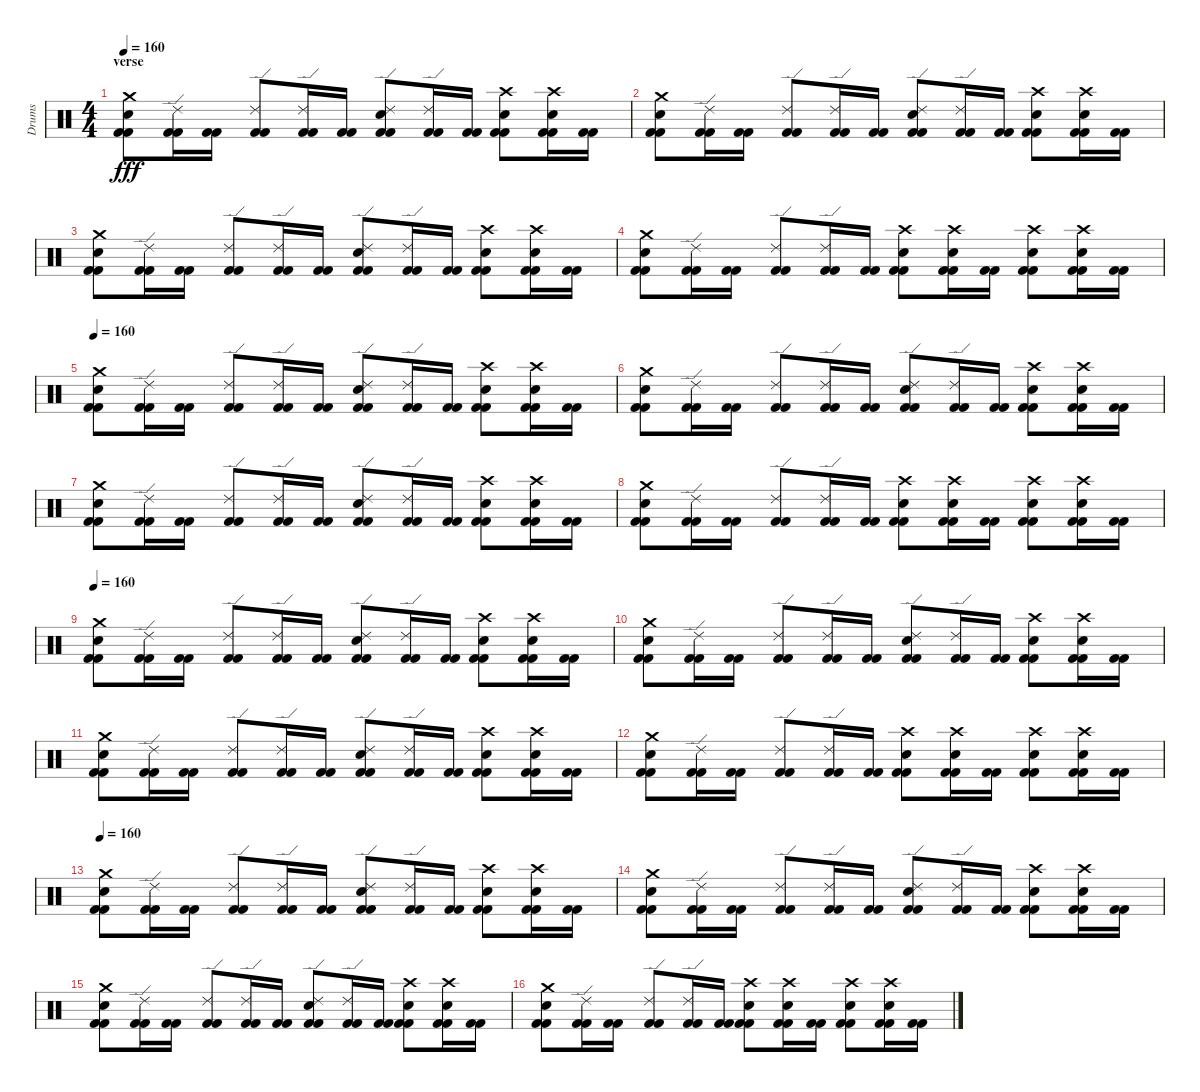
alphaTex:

\track ("Drums" "Drums") {instrument percussion}
\staff {score}
\articulation defaults
\ts (4 4)
\section ("" "verse")
\tempo 160
\clef neutral
\ks c
("Crash medium (hit)" "Electric Snare (hit)" "Kick (hit) 2" "Kick (hit) 2").8{dy fff} ("Ride (edge) 2" "Kick (hit) 2" "Kick (hit) 2").16 ("Kick (hit) 2" "Kick (hit) 2").16 ("Ride (edge) 2" "Kick (hit) 2" "Kick (hit) 2").8 ("Ride (edge) 2" "Kick (hit) 2" "Kick (hit) 2").16 ("Kick (hit) 2" "Kick (hit) 2").16 ("Ride (edge) 2" "Electric Snare (hit)" "Kick (hit) 2" "Kick (hit) 2").8 ("Ride (edge) 2" "Kick (hit) 2" "Kick (hit) 2").16 ("Kick (hit) 2" "Kick (hit) 2").16 ("Crash high (hit)" "Electric Snare (hit)" "Kick (hit) 2" "Kick (hit) 2").8 ("Crash high (hit)" "Electric Snare (hit)" "Kick (hit) 2" "Kick (hit) 2").16 ("Kick (hit) 2" "Kick (hit) 2").16 |
("Crash medium (hit)" "Electric Snare (hit)" "Kick (hit) 2" "Kick (hit) 2").8 ("Ride (edge) 2" "Kick (hit) 2" "Kick (hit) 2").16 ("Kick (hit) 2" "Kick (hit) 2").16 ("Ride (edge) 2" "Kick (hit) 2" "Kick (hit) 2").8 ("Ride (edge) 2" "Kick (hit) 2" "Kick (hit) 2").16 ("Kick (hit) 2" "Kick (hit) 2").16 ("Ride (edge) 2" "Electric Snare (hit)" "Kick (hit) 2" "Kick (hit) 2").8 ("Ride (edge) 2" "Kick (hit) 2" "Kick (hit) 2").16 ("Kick (hit) 2" "Kick (hit) 2").16 ("Crash high (hit)" "Electric Snare (hit)" "Kick (hit) 2" "Kick (hit) 2").8 ("Crash high (hit)" "Electric Snare (hit)" "Kick (hit) 2" "Kick (hit) 2").16 ("Kick (hit) 2" "Kick (hit) 2").16 |
("Crash medium (hit)" "Electric Snare (hit)" "Kick (hit) 2" "Kick (hit) 2").8 ("Ride (edge) 2" "Kick (hit) 2" "Kick (hit) 2").16 ("Kick (hit) 2" "Kick (hit) 2").16 ("Ride (edge) 2" "Kick (hit) 2" "Kick (hit) 2").8 ("Ride (edge) 2" "Kick (hit) 2" "Kick (hit) 2").16 ("Kick (hit) 2" "Kick (hit) 2").16 ("Ride (edge) 2" "Electric Snare (hit)" "Kick (hit) 2" "Kick (hit) 2").8 ("Ride (edge) 2" "Kick (hit) 2" "Kick (hit) 2").16 ("Kick (hit) 2" "Kick (hit) 2").16 ("Crash high (hit)" "Electric Snare (hit)" "Kick (hit) 2" "Kick (hit) 2").8 ("Crash high (hit)" "Electric Snare (hit)" "Kick (hit) 2" "Kick (hit) 2").16 ("Kick (hit) 2" "Kick (hit) 2").16 |
("Crash medium (hit)" "Electric Snare (hit)" "Kick (hit) 2" "Kick (hit) 2").8 ("Ride (edge) 2" "Kick (hit) 2" "Kick (hit) 2").16 ("Kick (hit) 2" "Kick (hit) 2").16 ("Ride (edge) 2" "Kick (hit) 2" "Kick (hit) 2").8 ("Ride (edge) 2" "Kick (hit) 2" "Kick (hit) 2").16 ("Kick (hit) 2" "Kick (hit) 2").16 ("Crash high (hit)" "Electric Snare (hit)" "Kick (hit) 2" "Kick (hit) 2").8 ("Crash high (hit)" "Electric Snare (hit)" "Kick (hit) 2" "Kick (hit) 2").16 ("Kick (hit) 2" "Kick (hit) 2").16 ("Crash high (hit)" "Electric Snare (hit)" "Kick (hit) 2" "Kick (hit) 2").8 ("Crash high (hit)" "Electric Snare (hit)" "Kick (hit) 2" "Kick (hit) 2").16 ("Kick (hit) 2" "Kick (hit) 2").16 |
\tempo 160
("Crash medium (hit)" "Electric Snare (hit)" "Kick (hit) 2" "Kick (hit) 2").8 ("Ride (edge) 2" "Kick (hit) 2" "Kick (hit) 2").16 ("Kick (hit) 2" "Kick (hit) 2").16 ("Ride (edge) 2" "Kick (hit) 2" "Kick (hit) 2").8 ("Ride (edge) 2" "Kick (hit) 2" "Kick (hit) 2").16 ("Kick (hit) 2" "Kick (hit) 2").16 ("Ride (edge) 2" "Electric Snare (hit)" "Kick (hit) 2" "Kick (hit) 2").8 ("Ride (edge) 2" "Kick (hit) 2" "Kick (hit) 2").16 ("Kick (hit) 2" "Kick (hit) 2").16 ("Crash high (hit)" "Electric Snare (hit)" "Kick (hit) 2" "Kick (hit) 2").8 ("Crash high (hit)" "Electric Snare (hit)" "Kick (hit) 2" "Kick (hit) 2").16 ("Kick (hit) 2" "Kick (hit) 2").16 |
("Crash medium (hit)" "Electric Snare (hit)" "Kick (hit) 2" "Kick (hit) 2").8 ("Ride (edge) 2" "Kick (hit) 2" "Kick (hit) 2").16 ("Kick (hit) 2" "Kick (hit) 2").16 ("Ride (edge) 2" "Kick (hit) 2" "Kick (hit) 2").8 ("Ride (edge) 2" "Kick (hit) 2" "Kick (hit) 2").16 ("Kick (hit) 2" "Kick (hit) 2").16 ("Ride (edge) 2" "Electric Snare (hit)" "Kick (hit) 2" "Kick (hit) 2").8 ("Ride (edge) 2" "Kick (hit) 2" "Kick (hit) 2").16 ("Kick (hit) 2" "Kick (hit) 2").16 ("Crash high (hit)" "Electric Snare (hit)" "Kick (hit) 2" "Kick (hit) 2").8 ("Crash high (hit)" "Electric Snare (hit)" "Kick (hit) 2" "Kick (hit) 2").16 ("Kick (hit) 2" "Kick (hit) 2").16 |
("Crash medium (hit)" "Electric Snare (hit)" "Kick (hit) 2" "Kick (hit) 2").8 ("Ride (edge) 2" "Kick (hit) 2" "Kick (hit) 2").16 ("Kick (hit) 2" "Kick (hit) 2").16 ("Ride (edge) 2" "Kick (hit) 2" "Kick (hit) 2").8 ("Ride (edge) 2" "Kick (hit) 2" "Kick (hit) 2").16 ("Kick (hit) 2" "Kick (hit) 2").16 ("Ride (edge) 2" "Electric Snare (hit)" "Kick (hit) 2" "Kick (hit) 2").8 ("Ride (edge) 2" "Kick (hit) 2" "Kick (hit) 2").16 ("Kick (hit) 2" "Kick (hit) 2").16 ("Crash high (hit)" "Electric Snare (hit)" "Kick (hit) 2" "Kick (hit) 2").8 ("Crash high (hit)" "Electric Snare (hit)" "Kick (hit) 2" "Kick (hit) 2").16 ("Kick (hit) 2" "Kick (hit) 2").16 |
("Crash medium (hit)" "Electric Snare (hit)" "Kick (hit) 2" "Kick (hit) 2").8 ("Ride (edge) 2" "Kick (hit) 2" "Kick (hit) 2").16 ("Kick (hit) 2" "Kick (hit) 2").16 ("Ride (edge) 2" "Kick (hit) 2" "Kick (hit) 2").8 ("Ride (edge) 2" "Kick (hit) 2" "Kick (hit) 2").16 ("Kick (hit) 2" "Kick (hit) 2").16 ("Crash high (hit)" "Electric Snare (hit)" "Kick (hit) 2" "Kick (hit) 2").8 ("Crash high (hit)" "Electric Snare (hit)" "Kick (hit) 2" "Kick (hit) 2").16 ("Kick (hit) 2" "Kick (hit) 2").16 ("Crash high (hit)" "Electric Snare (hit)" "Kick (hit) 2" "Kick (hit) 2").8 ("Crash high (hit)" "Electric Snare (hit)" "Kick (hit) 2" "Kick (hit) 2").16 ("Kick (hit) 2" "Kick (hit) 2").16 |
\tempo 160
("Crash medium (hit)" "Electric Snare (hit)" "Kick (hit) 2" "Kick (hit) 2").8 ("Ride (edge) 2" "Kick (hit) 2" "Kick (hit) 2").16 ("Kick (hit) 2" "Kick (hit) 2").16 ("Ride (edge) 2" "Kick (hit) 2" "Kick (hit) 2").8 ("Ride (edge) 2" "Kick (hit) 2" "Kick (hit) 2").16 ("Kick (hit) 2" "Kick (hit) 2").16 ("Ride (edge) 2" "Electric Snare (hit)" "Kick (hit) 2" "Kick (hit) 2").8 ("Ride (edge) 2" "Kick (hit) 2" "Kick (hit) 2").16 ("Kick (hit) 2" "Kick (hit) 2").16 ("Crash high (hit)" "Electric Snare (hit)" "Kick (hit) 2" "Kick (hit) 2").8 ("Crash high (hit)" "Electric Snare (hit)" "Kick (hit) 2" "Kick (hit) 2").16 ("Kick (hit) 2" "Kick (hit) 2").16 |
("Crash medium (hit)" "Electric Snare (hit)" "Kick (hit) 2" "Kick (hit) 2").8 ("Ride (edge) 2" "Kick (hit) 2" "Kick (hit) 2").16 ("Kick (hit) 2" "Kick (hit) 2").16 ("Ride (edge) 2" "Kick (hit) 2" "Kick (hit) 2").8 ("Ride (edge) 2" "Kick (hit) 2" "Kick (hit) 2").16 ("Kick (hit) 2" "Kick (hit) 2").16 ("Ride (edge) 2" "Electric Snare (hit)" "Kick (hit) 2" "Kick (hit) 2").8 ("Ride (edge) 2" "Kick (hit) 2" "Kick (hit) 2").16 ("Kick (hit) 2" "Kick (hit) 2").16 ("Crash high (hit)" "Electric Snare (hit)" "Kick (hit) 2" "Kick (hit) 2").8 ("Crash high (hit)" "Electric Snare (hit)" "Kick (hit) 2" "Kick (hit) 2").16 ("Kick (hit) 2" "Kick (hit) 2").16 |
("Crash medium (hit)" "Electric Snare (hit)" "Kick (hit) 2" "Kick (hit) 2").8 ("Ride (edge) 2" "Kick (hit) 2" "Kick (hit) 2").16 ("Kick (hit) 2" "Kick (hit) 2").16 ("Ride (edge) 2" "Kick (hit) 2" "Kick (hit) 2").8 ("Ride (edge) 2" "Kick (hit) 2" "Kick (hit) 2").16 ("Kick (hit) 2" "Kick (hit) 2").16 ("Ride (edge) 2" "Electric Snare (hit)" "Kick (hit) 2" "Kick (hit) 2").8 ("Ride (edge) 2" "Kick (hit) 2" "Kick (hit) 2").16 ("Kick (hit) 2" "Kick (hit) 2").16 ("Crash high (hit)" "Electric Snare (hit)" "Kick (hit) 2" "Kick (hit) 2").8 ("Crash high (hit)" "Electric Snare (hit)" "Kick (hit) 2" "Kick (hit) 2").16 ("Kick (hit) 2" "Kick (hit) 2").16 |
("Crash medium (hit)" "Electric Snare (hit)" "Kick (hit) 2" "Kick (hit) 2").8 ("Ride (edge) 2" "Kick (hit) 2" "Kick (hit) 2").16 ("Kick (hit) 2" "Kick (hit) 2").16 ("Ride (edge) 2" "Kick (hit) 2" "Kick (hit) 2").8 ("Ride (edge) 2" "Kick (hit) 2" "Kick (hit) 2").16 ("Kick (hit) 2" "Kick (hit) 2").16 ("Crash high (hit)" "Electric Snare (hit)" "Kick (hit) 2" "Kick (hit) 2").8 ("Crash high (hit)" "Electric Snare (hit)" "Kick (hit) 2" "Kick (hit) 2").16 ("Kick (hit) 2" "Kick (hit) 2").16 ("Crash high (hit)" "Electric Snare (hit)" "Kick (hit) 2" "Kick (hit) 2").8 ("Crash high (hit)" "Electric Snare (hit)" "Kick (hit) 2" "Kick (hit) 2").16 ("Kick (hit) 2" "Kick (hit) 2").16 |
\tempo 160
("Crash medium (hit)" "Electric Snare (hit)" "Kick (hit) 2" "Kick (hit) 2").8 ("Ride (edge) 2" "Kick (hit) 2" "Kick (hit) 2").16 ("Kick (hit) 2" "Kick (hit) 2").16 ("Ride (edge) 2" "Kick (hit) 2" "Kick (hit) 2").8 ("Ride (edge) 2" "Kick (hit) 2" "Kick (hit) 2").16 ("Kick (hit) 2" "Kick (hit) 2").16 ("Ride (edge) 2" "Electric Snare (hit)" "Kick (hit) 2" "Kick (hit) 2").8 ("Ride (edge) 2" "Kick (hit) 2" "Kick (hit) 2").16 ("Kick (hit) 2" "Kick (hit) 2").16 ("Crash high (hit)" "Electric Snare (hit)" "Kick (hit) 2" "Kick (hit) 2").8 ("Crash high (hit)" "Electric Snare (hit)" "Kick (hit) 2" "Kick (hit) 2").16 ("Kick (hit) 2" "Kick (hit) 2").16 |
("Crash medium (hit)" "Electric Snare (hit)" "Kick (hit) 2" "Kick (hit) 2").8 ("Ride (edge) 2" "Kick (hit) 2" "Kick (hit) 2").16 ("Kick (hit) 2" "Kick (hit) 2").16 ("Ride (edge) 2" "Kick (hit) 2" "Kick (hit) 2").8 ("Ride (edge) 2" "Kick (hit) 2" "Kick (hit) 2").16 ("Kick (hit) 2" "Kick (hit) 2").16 ("Ride (edge) 2" "Electric Snare (hit)" "Kick (hit) 2" "Kick (hit) 2").8 ("Ride (edge) 2" "Kick (hit) 2" "Kick (hit) 2").16 ("Kick (hit) 2" "Kick (hit) 2").16 ("Crash high (hit)" "Electric Snare (hit)" "Kick (hit) 2" "Kick (hit) 2").8 ("Crash high (hit)" "Electric Snare (hit)" "Kick (hit) 2" "Kick (hit) 2").16 ("Kick (hit) 2" "Kick (hit) 2").16 |
("Crash medium (hit)" "Electric Snare (hit)" "Kick (hit) 2" "Kick (hit) 2").8 ("Ride (edge) 2" "Kick (hit) 2" "Kick (hit) 2").16 ("Kick (hit) 2" "Kick (hit) 2").16 ("Ride (edge) 2" "Kick (hit) 2" "Kick (hit) 2").8 ("Ride (edge) 2" "Kick (hit) 2" "Kick (hit) 2").16 ("Kick (hit) 2" "Kick (hit) 2").16 ("Ride (edge) 2" "Electric Snare (hit)" "Kick (hit) 2" "Kick (hit) 2").8 ("Ride (edge) 2" "Kick (hit) 2" "Kick (hit) 2").16 ("Kick (hit) 2" "Kick (hit) 2").16 ("Crash high (hit)" "Electric Snare (hit)" "Kick (hit) 2" "Kick (hit) 2").8 ("Crash high (hit)" "Electric Snare (hit)" "Kick (hit) 2" "Kick (hit) 2").16 ("Kick (hit) 2" "Kick (hit) 2").16 |
("Crash medium (hit)" "Electric Snare (hit)" "Kick (hit) 2" "Kick (hit) 2").8 ("Ride (edge) 2" "Kick (hit) 2" "Kick (hit) 2").16 ("Kick (hit) 2" "Kick (hit) 2").16 ("Ride (edge) 2" "Kick (hit) 2" "Kick (hit) 2").8 ("Ride (edge) 2" "Kick (hit) 2" "Kick (hit) 2").16 ("Kick (hit) 2" "Kick (hit) 2").16 ("Crash high (hit)" "Electric Snare (hit)" "Kick (hit) 2" "Kick (hit) 2").8 ("Crash high (hit)" "Electric Snare (hit)" "Kick (hit) 2" "Kick (hit) 2").16 ("Kick (hit) 2" "Kick (hit) 2").16 ("Crash high (hit)" "Electric Snare (hit)" "Kick (hit) 2" "Kick (hit) 2").8 ("Crash high (hit)" "Electric Snare (hit)" "Kick (hit) 2" "Kick (hit) 2").16 ("Kick (hit) 2" "Kick (hit) 2").16
